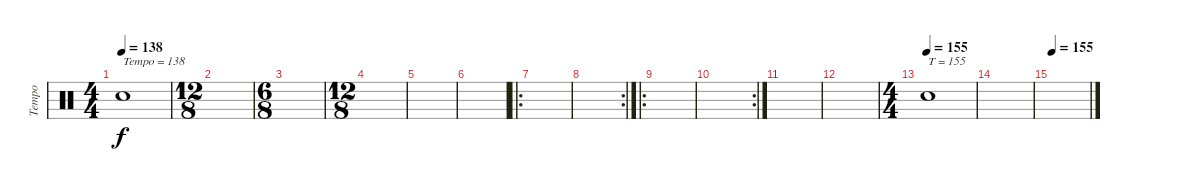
\track ("Tempo" "Tempo") {instrument percussion}
\staff {score}
\articulation defaults
\ts (4 4)
\tempo 138
\clef neutral
\ks c "Snare (hit)"{x}.1{txt "Tempo = 138" dy f}
|
\ts (12 8)
|
\ts (6 8)
|
\ts (12 8)
|
|
|
\ro
|
\rc 2
|
\ro
|
\rc 2
|
|
|
\ts (4 4)
\tempo (155)
"Snare (hit)"{x}.1{txt "T = 155"} |
|
\tempo 155
